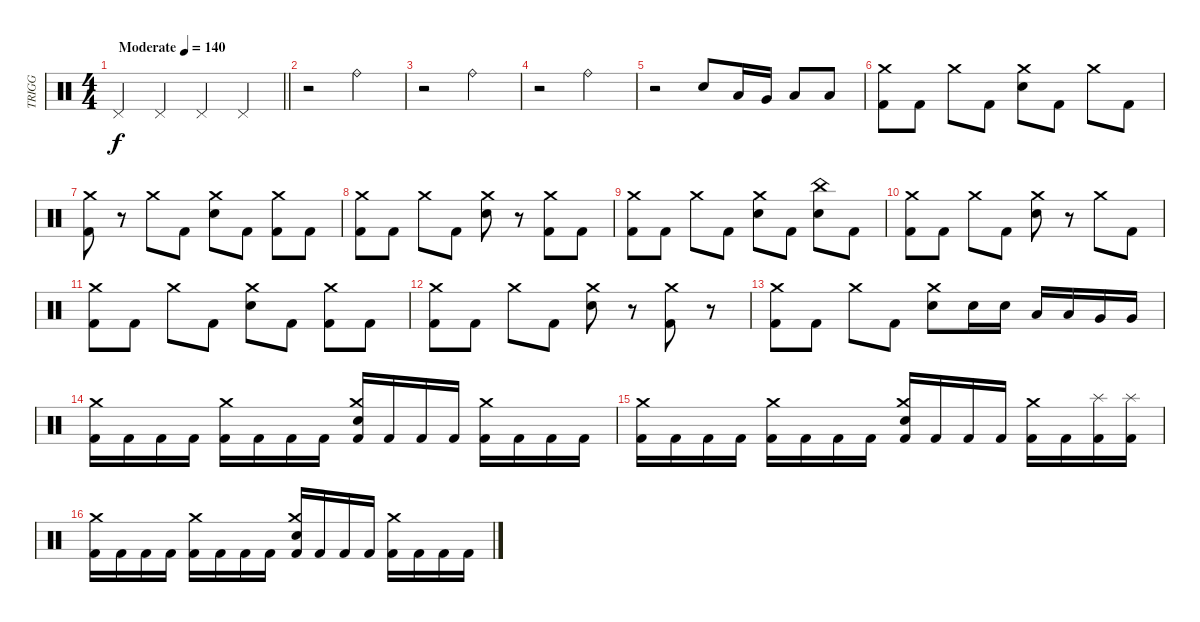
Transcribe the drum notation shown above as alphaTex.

\track ("TRIGG" "TRIGG") {instrument percussion}
\staff {score}
\articulation defaults
\ts (4 4)
\tempo (140 "Moderate")
\clef neutral
\barLineRight lightlight
\ks c "Pedal Hi-Hat (hit)".4{dy f} "Pedal Hi-Hat (hit)".4 "Pedal Hi-Hat (hit)".4 "Pedal Hi-Hat (hit)".4
|
r.2 "Ride (bell)".2 |
r.2 "Ride (bell)".2 |
r.2 "Ride (bell)".2 |
r.2 "Electric Snare (hit)".8 "Low Tom (hit)".16 "Very Low Tom (hit)".16 "Low Floor Tom (hit)".8 "Low Floor Tom (hit)".8 |
("Crash medium (hit)" "Kick (hit) 2").8 "Kick (hit) 2".8 "Crash medium (hit)".8 "Kick (hit) 2".8 ("Crash medium (hit)" "Electric Snare (hit)").8 "Kick (hit) 2".8 "Crash medium (hit)".8 "Kick (hit) 2".8 |
("Crash medium (hit)" "Kick (hit) 2").8 r.8 "Crash medium (hit)".8 "Kick (hit) 2".8 ("Crash medium (hit)" "Electric Snare (hit)").8 "Kick (hit) 2".8 ("Crash medium (hit)" "Kick (hit) 2").8 "Kick (hit) 2".8 |
("Crash medium (hit)" "Kick (hit) 2").8 "Kick (hit) 2".8 "Crash medium (hit)".8 "Kick (hit) 2".8 ("Crash medium (hit)" "Electric Snare (hit)").8 r.8 ("Crash medium (hit)" "Kick (hit) 2").8 "Kick (hit) 2".8 |
("Crash medium (hit)" "Kick (hit) 2").8 "Kick (hit) 2".8 "Crash medium (hit)".8 "Kick (hit) 2".8 ("Crash medium (hit)" "Electric Snare (hit)").8 "Kick (hit) 2".8 ("China (hit)" "Electric Snare (hit)").8 "Kick (hit) 2".8 |
("Crash medium (hit)" "Kick (hit) 2").8 "Kick (hit) 2".8 "Crash medium (hit)".8 "Kick (hit) 2".8 ("Crash medium (hit)" "Electric Snare (hit)").8 r.8 "Crash medium (hit)".8 "Kick (hit) 2".8 |
("Crash medium (hit)" "Kick (hit) 2").8 "Kick (hit) 2".8 "Crash medium (hit)".8 "Kick (hit) 2".8 ("Crash medium (hit)" "Electric Snare (hit)").8 "Kick (hit) 2".8 ("Crash medium (hit)" "Kick (hit) 2").8 "Kick (hit) 2".8 |
("Crash medium (hit)" "Kick (hit) 2").8 "Kick (hit) 2".8 "Crash medium (hit)".8 "Kick (hit) 2".8 ("Crash medium (hit)" "Electric Snare (hit)").8 r.8 ("Crash medium (hit)" "Kick (hit) 2").8 r.8 |
("Crash medium (hit)" "Kick (hit) 2").8 "Kick (hit) 2".8 "Crash medium (hit)".8 "Kick (hit) 2".8 ("Crash medium (hit)" "Electric Snare (hit)").8 "Electric Snare (hit)".16 "Electric Snare (hit)".16 "Low Tom (hit)".16 "Low Tom (hit)".16 "Very Low Tom (hit)".16 "Very Low Tom (hit)".16 |
("Crash medium (hit)" "Kick (hit) 2").16 "Kick (hit) 2".16 "Kick (hit) 2".16 "Kick (hit) 2".16 ("Crash medium (hit)" "Kick (hit) 2").16 "Kick (hit) 2".16 "Kick (hit) 2".16 "Kick (hit) 2".16 ("Crash medium (hit)" "Electric Snare (hit)" "Kick (hit) 2").16 "Kick (hit) 2".16 "Kick (hit) 2".16 "Kick (hit) 2".16 ("Crash medium (hit)" "Kick (hit) 2").16 "Kick (hit) 2".16 "Kick (hit) 2".16 "Kick (hit) 2".16 |
("Crash medium (hit)" "Kick (hit) 2").16 "Kick (hit) 2".16 "Kick (hit) 2".16 "Kick (hit) 2".16 ("Crash medium (hit)" "Kick (hit) 2").16 "Kick (hit) 2".16 "Kick (hit) 2".16 "Kick (hit) 2".16 ("Crash medium (hit)" "Electric Snare (hit)" "Kick (hit) 2").16 "Kick (hit) 2".16 "Kick (hit) 2".16 "Kick (hit) 2".16 ("Crash medium (hit)" "Kick (hit) 2").16 "Kick (hit) 2".16 ("Splash (hit)" "Kick (hit) 2").16 ("Splash (hit)" "Kick (hit) 2").16 |
("Crash medium (hit)" "Kick (hit) 2").16 "Kick (hit) 2".16 "Kick (hit) 2".16 "Kick (hit) 2".16 ("Crash medium (hit)" "Kick (hit) 2").16 "Kick (hit) 2".16 "Kick (hit) 2".16 "Kick (hit) 2".16 ("Crash medium (hit)" "Electric Snare (hit)" "Kick (hit) 2").16 "Kick (hit) 2".16 "Kick (hit) 2".16 "Kick (hit) 2".16 ("Crash medium (hit)" "Kick (hit) 2").16 "Kick (hit) 2".16 "Kick (hit) 2".16 "Kick (hit) 2".16
